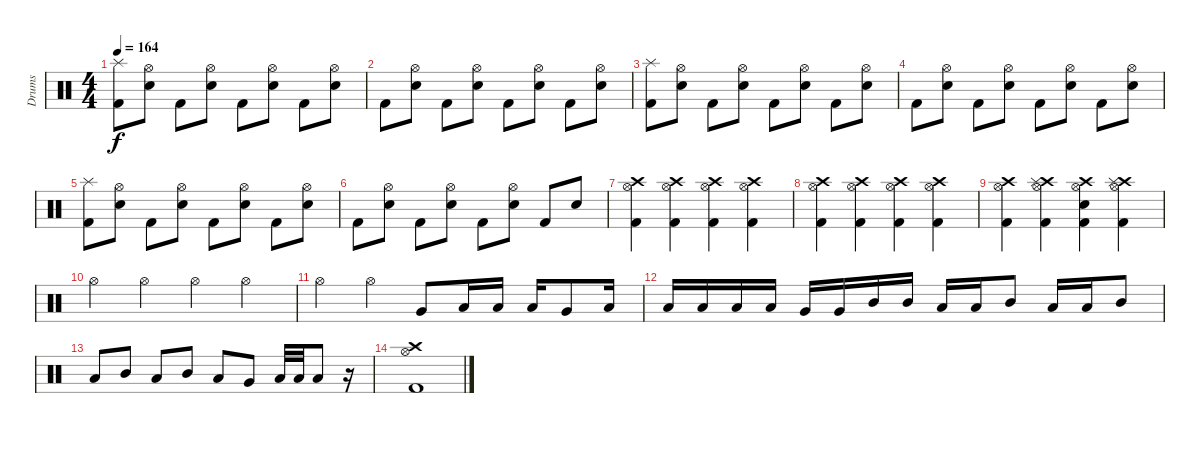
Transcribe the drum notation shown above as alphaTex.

\track ("Drums " "Drums ") {instrument percussion}
\staff {score}
\articulation defaults
\ts (4 4)
\tempo 164
\clef neutral
\ks c
("Kick (hit) 2" "Splash (hit)").8{dy f} ("Snare (hit) 2" "Hi-Hat (open)").8 "Kick (hit) 2".8 ("Snare (hit) 2" "Hi-Hat (open)").8 "Kick (hit) 2".8 ("Snare (hit) 2" "Hi-Hat (open)").8 "Kick (hit) 2".8 ("Snare (hit) 2" "Hi-Hat (open)").8 |
"Kick (hit) 2".8 ("Snare (hit) 2" "Hi-Hat (open)").8 "Kick (hit) 2".8 ("Snare (hit) 2" "Hi-Hat (open)").8 "Kick (hit) 2".8 ("Snare (hit) 2" "Hi-Hat (open)").8 "Kick (hit) 2".8 ("Snare (hit) 2" "Hi-Hat (open)").8 |
("Kick (hit) 2" "Splash (hit)").8 ("Snare (hit) 2" "Hi-Hat (open)").8 "Kick (hit) 2".8 ("Snare (hit) 2" "Hi-Hat (open)").8 "Kick (hit) 2".8 ("Snare (hit) 2" "Hi-Hat (open)").8 "Kick (hit) 2".8 ("Snare (hit) 2" "Hi-Hat (open)").8 |
"Kick (hit) 2".8 ("Snare (hit) 2" "Hi-Hat (open)").8 "Kick (hit) 2".8 ("Snare (hit) 2" "Hi-Hat (open)").8 "Kick (hit) 2".8 ("Snare (hit) 2" "Hi-Hat (open)").8 "Kick (hit) 2".8 ("Snare (hit) 2" "Hi-Hat (open)").8 |
("Kick (hit) 2" "Splash (hit)").8 ("Snare (hit) 2" "Hi-Hat (open)").8 "Kick (hit) 2".8 ("Snare (hit) 2" "Hi-Hat (open)").8 "Kick (hit) 2".8 ("Snare (hit) 2" "Hi-Hat (open)").8 "Kick (hit) 2".8 ("Snare (hit) 2" "Hi-Hat (open)").8 |
"Kick (hit) 2".8 ("Snare (hit) 2" "Hi-Hat (open)").8 "Kick (hit) 2".8 ("Snare (hit) 2" "Hi-Hat (open)").8 "Kick (hit) 2".8 ("Snare (hit) 2" "Hi-Hat (open)").8 "Kick (hit) 2".8 "Snare (hit) 2".8 |
("Kick (hit) 2" "Hi-Hat (open)" "Crash high (hit)").4 ("Hi-Hat (open)" "Kick (hit) 2" "Crash high (hit)").4 ("Hi-Hat (open)" "Kick (hit) 2" "Crash high (hit)").4 ("Hi-Hat (open)" "Kick (hit) 2" "Crash high (hit)").4 |
("Hi-Hat (open)" "Kick (hit) 2" "Crash high (hit)").4 ("Hi-Hat (open)" "Kick (hit) 2" "Crash high (hit)").4 ("Hi-Hat (open)" "Kick (hit) 2" "Crash high (hit)").4 ("Hi-Hat (open)" "Kick (hit) 2" "Crash high (hit)").4 |
("Crash high (hit)" "Kick (hit) 2" "Hi-Hat (open)").4 ("Hi-Hat (open)" "Crash high (hit)" "Splash (hit)" "Kick (hit) 2").4 ("Hi-Hat (open)" "Crash high (hit)" "Kick (hit) 2" "Snare (hit) 2").4 ("Hi-Hat (open)" "Crash high (hit)" "Splash (hit)" "Kick (hit) 2").4 |
"Hi-Hat (open)".4 "Hi-Hat (open)".4 "Hi-Hat (open)".4 "Hi-Hat (open)".4 |
"Hi-Hat (open)".4 "Hi-Hat (open)".4 "Very Low Tom (hit)".8 "Low Tom (hit)".16 "Low Tom (hit)".16 "Low Tom (hit)".16 "Very Low Tom (hit)".8 "Low Tom (hit)".16 |
"Low Tom (hit)".16 "Low Tom (hit)".16 "Low Tom (hit)".16 "Low Tom (hit)".16 "Very Low Tom (hit)".16 "Very Low Tom (hit)".16 "Mid Tom (hit)".16 "Mid Tom (hit)".16 "Low Tom (hit)".16 "Low Tom (hit)".16 "Mid Tom (hit)".8 "Low Tom (hit)".16 "Low Tom (hit)".16 "Mid Tom (hit)".8 |
"Low Tom (hit)".8 "Mid Tom (hit)".8 "Low Tom (hit)".8 "Mid Tom (hit)".8 "Low Tom (hit)".8 "Very Low Tom (hit)".8 "Low Tom (hit)".32 "Low Tom (hit)".32 "Low Tom (hit)".8 r.16 |
("Hi-Hat (open)" "Crash high (hit)" "Kick (hit) 2").1
